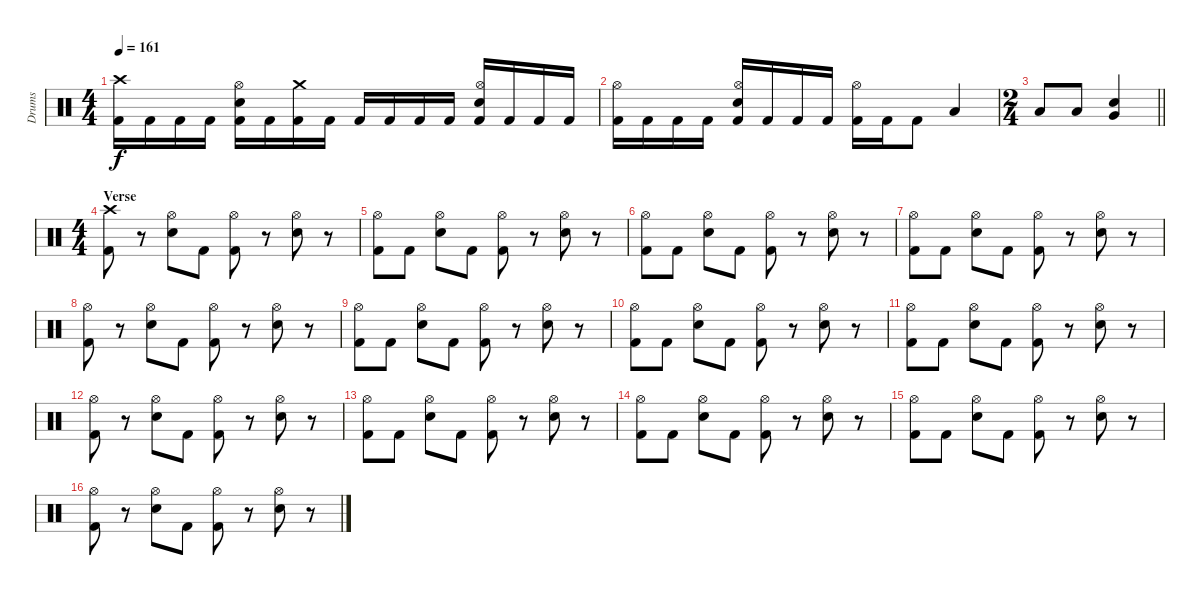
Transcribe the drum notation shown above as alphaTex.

\track ("Drums" "Drums") {instrument percussion}
\staff {score}
\articulation defaults
\ts (4 4)
\tempo 161
\clef neutral
\ks c
("Crash high (hit)" "Kick (hit) 2").16{dy f} "Kick (hit) 2".16 "Kick (hit) 2".16 "Kick (hit) 2".16 ("Hi-Hat (open)" "Snare (hit) 2" "Kick (hit) 2").16 "Kick (hit) 2".16 ("Crash medium (hit)" "Kick (hit) 2").16 "Kick (hit) 2".16 "Kick (hit) 2".16 "Kick (hit) 2".16 "Kick (hit) 2".16 "Kick (hit) 2".16 ("Hi-Hat (open)" "Snare (hit) 2" "Kick (hit) 2").16 "Kick (hit) 2".16 "Kick (hit) 2".16 "Kick (hit) 2".16 |
("Hi-Hat (open)" "Kick (hit) 2").16 "Kick (hit) 2".16 "Kick (hit) 2".16 "Kick (hit) 2".16 ("Hi-Hat (open)" "Snare (hit) 2" "Kick (hit) 2").16 "Kick (hit) 2".16 "Kick (hit) 2".16 "Kick (hit) 2".16 ("Hi-Hat (open)" "Kick (hit) 2").16 "Kick (hit) 2".16 "Kick (hit) 2".8 "Low Tom (hit)".4 |
\ts (2 4)
\barLineRight lightlight "Low Tom (hit)".8 "Low Tom (hit)".8
("Snare (hit) 2" "Very Low Tom (hit)").4 |
\ts (4 4)
\section ("" "Verse")
("Crash high (hit)" "Kick (hit) 2").8 r.8 ("Hi-Hat (open)" "Snare (hit) 2").8 "Kick (hit) 2".8 ("Hi-Hat (open)" "Kick (hit) 2").8 r.8 ("Hi-Hat (open)" "Snare (hit) 2").8 r.8 |
("Hi-Hat (open)" "Kick (hit) 2").8 "Kick (hit) 2".8 ("Hi-Hat (open)" "Snare (hit) 2").8 "Kick (hit) 2".8 ("Hi-Hat (open)" "Kick (hit) 2").8 r.8 ("Hi-Hat (open)" "Snare (hit) 2").8 r.8 |
("Hi-Hat (open)" "Kick (hit) 2").8 "Kick (hit) 2".8 ("Hi-Hat (open)" "Snare (hit) 2").8 "Kick (hit) 2".8 ("Hi-Hat (open)" "Kick (hit) 2").8 r.8 ("Hi-Hat (open)" "Snare (hit) 2").8 r.8 |
("Hi-Hat (open)" "Kick (hit) 2").8 "Kick (hit) 2".8 ("Hi-Hat (open)" "Snare (hit) 2").8 "Kick (hit) 2".8 ("Hi-Hat (open)" "Kick (hit) 2").8 r.8 ("Hi-Hat (open)" "Snare (hit) 2").8 r.8 |
("Hi-Hat (open)" "Kick (hit) 2").8 r.8 ("Hi-Hat (open)" "Snare (hit) 2").8 "Kick (hit) 2".8 ("Hi-Hat (open)" "Kick (hit) 2").8 r.8 ("Hi-Hat (open)" "Snare (hit) 2").8 r.8 |
("Hi-Hat (open)" "Kick (hit) 2").8 "Kick (hit) 2".8 ("Hi-Hat (open)" "Snare (hit) 2").8 "Kick (hit) 2".8 ("Hi-Hat (open)" "Kick (hit) 2").8 r.8 ("Hi-Hat (open)" "Snare (hit) 2").8 r.8 |
("Hi-Hat (open)" "Kick (hit) 2").8 "Kick (hit) 2".8 ("Hi-Hat (open)" "Snare (hit) 2").8 "Kick (hit) 2".8 ("Hi-Hat (open)" "Kick (hit) 2").8 r.8 ("Hi-Hat (open)" "Snare (hit) 2").8 r.8 |
("Hi-Hat (open)" "Kick (hit) 2").8 "Kick (hit) 2".8 ("Hi-Hat (open)" "Snare (hit) 2").8 "Kick (hit) 2".8 ("Hi-Hat (open)" "Kick (hit) 2").8 r.8 ("Hi-Hat (open)" "Snare (hit) 2").8 r.8 |
("Hi-Hat (open)" "Kick (hit) 2").8 r.8 ("Hi-Hat (open)" "Snare (hit) 2").8 "Kick (hit) 2".8 ("Hi-Hat (open)" "Kick (hit) 2").8 r.8 ("Hi-Hat (open)" "Snare (hit) 2").8 r.8 |
("Hi-Hat (open)" "Kick (hit) 2").8 "Kick (hit) 2".8 ("Hi-Hat (open)" "Snare (hit) 2").8 "Kick (hit) 2".8 ("Hi-Hat (open)" "Kick (hit) 2").8 r.8 ("Hi-Hat (open)" "Snare (hit) 2").8 r.8 |
("Hi-Hat (open)" "Kick (hit) 2").8 "Kick (hit) 2".8 ("Hi-Hat (open)" "Snare (hit) 2").8 "Kick (hit) 2".8 ("Hi-Hat (open)" "Kick (hit) 2").8 r.8 ("Hi-Hat (open)" "Snare (hit) 2").8 r.8 |
("Hi-Hat (open)" "Kick (hit) 2").8 "Kick (hit) 2".8 ("Hi-Hat (open)" "Snare (hit) 2").8 "Kick (hit) 2".8 ("Hi-Hat (open)" "Kick (hit) 2").8 r.8 ("Hi-Hat (open)" "Snare (hit) 2").8 r.8 |
("Hi-Hat (open)" "Kick (hit) 2").8 r.8 ("Hi-Hat (open)" "Snare (hit) 2").8 "Kick (hit) 2".8 ("Hi-Hat (open)" "Kick (hit) 2").8 r.8 ("Hi-Hat (open)" "Snare (hit) 2").8 r.8
